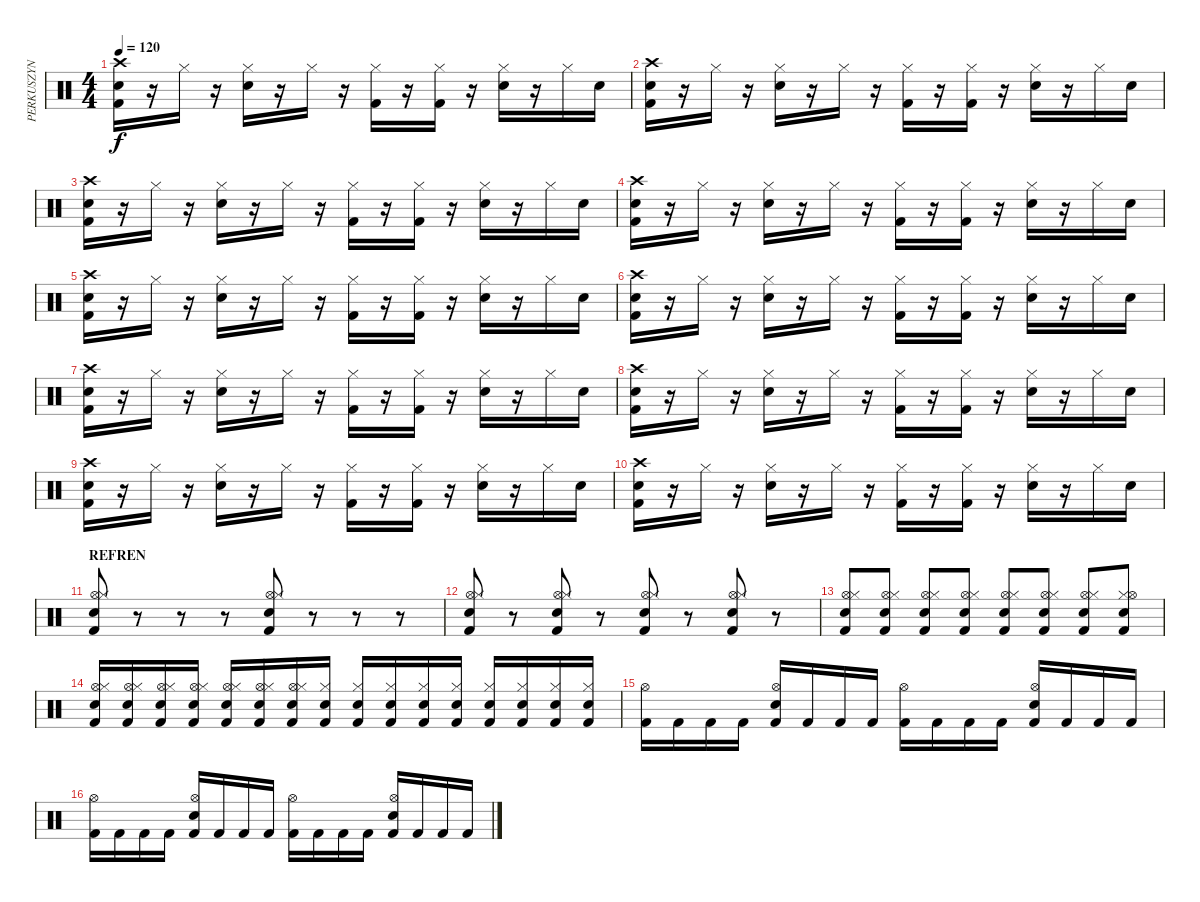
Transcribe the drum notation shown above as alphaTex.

\track ("PERKUSZYN" "PERKUSZYN") {instrument percussion}
\staff {score}
\articulation defaults
\ts (4 4)
\tempo 120
\clef neutral
\ks c
("Crash high (hit)" "Snare (hit) 2" "Kick (hit) 2").16{dy f} r.16 "Hi-Hat (closed)".16 r.16 ("Hi-Hat (closed)" "Snare (hit) 2").16 r.16 "Hi-Hat (closed)".16 r.16 ("Hi-Hat (closed)" "Kick (hit) 2").16 r.16 ("Hi-Hat (closed)" "Kick (hit) 2").16 r.16 ("Hi-Hat (closed)" "Snare (hit) 2").16 r.16 "Hi-Hat (closed)".16 "Snare (hit) 2".16 |
("Crash high (hit)" "Snare (hit) 2" "Kick (hit) 2").16 r.16 "Hi-Hat (closed)".16 r.16 ("Hi-Hat (closed)" "Snare (hit) 2").16 r.16 "Hi-Hat (closed)".16 r.16 ("Hi-Hat (closed)" "Kick (hit) 2").16 r.16 ("Hi-Hat (closed)" "Kick (hit) 2").16 r.16 ("Hi-Hat (closed)" "Snare (hit) 2").16 r.16 "Hi-Hat (closed)".16 "Snare (hit) 2".16 |
("Crash high (hit)" "Snare (hit) 2" "Kick (hit) 2").16 r.16 "Hi-Hat (closed)".16 r.16 ("Hi-Hat (closed)" "Snare (hit) 2").16 r.16 "Hi-Hat (closed)".16 r.16 ("Hi-Hat (closed)" "Kick (hit) 2").16 r.16 ("Hi-Hat (closed)" "Kick (hit) 2").16 r.16 ("Hi-Hat (closed)" "Snare (hit) 2").16 r.16 "Hi-Hat (closed)".16 "Snare (hit) 2".16 |
("Crash high (hit)" "Snare (hit) 2" "Kick (hit) 2").16 r.16 "Hi-Hat (closed)".16 r.16 ("Hi-Hat (closed)" "Snare (hit) 2").16 r.16 "Hi-Hat (closed)".16 r.16 ("Hi-Hat (closed)" "Kick (hit) 2").16 r.16 ("Hi-Hat (closed)" "Kick (hit) 2").16 r.16 ("Hi-Hat (closed)" "Snare (hit) 2").16 r.16 "Hi-Hat (closed)".16 "Snare (hit) 2".16 |
("Crash high (hit)" "Snare (hit) 2" "Kick (hit) 2").16 r.16 "Hi-Hat (closed)".16 r.16 ("Hi-Hat (closed)" "Snare (hit) 2").16 r.16 "Hi-Hat (closed)".16 r.16 ("Hi-Hat (closed)" "Kick (hit) 2").16 r.16 ("Hi-Hat (closed)" "Kick (hit) 2").16 r.16 ("Hi-Hat (closed)" "Snare (hit) 2").16 r.16 "Hi-Hat (closed)".16 "Snare (hit) 2".16 |
("Crash high (hit)" "Snare (hit) 2" "Kick (hit) 2").16 r.16 "Hi-Hat (closed)".16 r.16 ("Hi-Hat (closed)" "Snare (hit) 2").16 r.16 "Hi-Hat (closed)".16 r.16 ("Hi-Hat (closed)" "Kick (hit) 2").16 r.16 ("Hi-Hat (closed)" "Kick (hit) 2").16 r.16 ("Hi-Hat (closed)" "Snare (hit) 2").16 r.16 "Hi-Hat (closed)".16 "Snare (hit) 2".16 |
("Crash high (hit)" "Snare (hit) 2" "Kick (hit) 2").16 r.16 "Hi-Hat (closed)".16 r.16 ("Hi-Hat (closed)" "Snare (hit) 2").16 r.16 "Hi-Hat (closed)".16 r.16 ("Hi-Hat (closed)" "Kick (hit) 2").16 r.16 ("Hi-Hat (closed)" "Kick (hit) 2").16 r.16 ("Hi-Hat (closed)" "Snare (hit) 2").16 r.16 "Hi-Hat (closed)".16 "Snare (hit) 2".16 |
("Crash high (hit)" "Snare (hit) 2" "Kick (hit) 2").16 r.16 "Hi-Hat (closed)".16 r.16 ("Hi-Hat (closed)" "Snare (hit) 2").16 r.16 "Hi-Hat (closed)".16 r.16 ("Hi-Hat (closed)" "Kick (hit) 2").16 r.16 ("Hi-Hat (closed)" "Kick (hit) 2").16 r.16 ("Hi-Hat (closed)" "Snare (hit) 2").16 r.16 "Hi-Hat (closed)".16 "Snare (hit) 2".16 |
("Crash high (hit)" "Snare (hit) 2" "Kick (hit) 2").16 r.16 "Hi-Hat (closed)".16 r.16 ("Hi-Hat (closed)" "Snare (hit) 2").16 r.16 "Hi-Hat (closed)".16 r.16 ("Hi-Hat (closed)" "Kick (hit) 2").16 r.16 ("Hi-Hat (closed)" "Kick (hit) 2").16 r.16 ("Hi-Hat (closed)" "Snare (hit) 2").16 r.16 "Hi-Hat (closed)".16 "Snare (hit) 2".16 |
("Crash high (hit)" "Snare (hit) 2" "Kick (hit) 2").16 r.16 "Hi-Hat (closed)".16 r.16 ("Hi-Hat (closed)" "Snare (hit) 2").16 r.16 "Hi-Hat (closed)".16 r.16 ("Hi-Hat (closed)" "Kick (hit) 2").16 r.16 ("Hi-Hat (closed)" "Kick (hit) 2").16 r.16 ("Hi-Hat (closed)" "Snare (hit) 2").16 r.16 "Hi-Hat (closed)".16 "Snare (hit) 2".16 |
\section ("" "REFREN")
("Hi-Hat (open)" "Hi-Hat (closed)" "Electric Snare (hit)" "Kick (hit) 2").8 r.8 r.8 r.8 ("Hi-Hat (open)" "Hi-Hat (closed)" "Electric Snare (hit)" "Kick (hit) 2").8 r.8 r.8 r.8 |
("Hi-Hat (open)" "Hi-Hat (closed)" "Electric Snare (hit)" "Kick (hit) 2").8 r.8 ("Hi-Hat (open)" "Hi-Hat (closed)" "Electric Snare (hit)" "Kick (hit) 2").8 r.8 ("Hi-Hat (open)" "Hi-Hat (closed)" "Electric Snare (hit)" "Kick (hit) 2").8 r.8 ("Hi-Hat (open)" "Hi-Hat (closed)" "Electric Snare (hit)" "Kick (hit) 2").8 r.8 |
("Hi-Hat (open)" "Hi-Hat (closed)" "Electric Snare (hit)" "Kick (hit) 2").8 ("Hi-Hat (open)" "Hi-Hat (closed)" "Electric Snare (hit)" "Kick (hit) 2").8 ("Hi-Hat (open)" "Hi-Hat (closed)" "Electric Snare (hit)" "Kick (hit) 2").8 ("Hi-Hat (open)" "Hi-Hat (closed)" "Electric Snare (hit)" "Kick (hit) 2").8 ("Hi-Hat (open)" "Hi-Hat (closed)" "Electric Snare (hit)" "Kick (hit) 2").8 ("Hi-Hat (open)" "Electric Snare (hit)" "Hi-Hat (closed)" "Kick (hit) 2").8 ("Hi-Hat (open)" "Hi-Hat (closed)" "Electric Snare (hit)" "Kick (hit) 2").8 ("Hi-Hat (closed)" "Hi-Hat (open)" "Electric Snare (hit)" "Kick (hit) 2").8 |
("Hi-Hat (open)" "Hi-Hat (closed)" "Electric Snare (hit)" "Kick (hit) 2").16 ("Hi-Hat (open)" "Hi-Hat (closed)" "Electric Snare (hit)" "Kick (hit) 2").16 ("Hi-Hat (open)" "Hi-Hat (closed)" "Electric Snare (hit)" "Kick (hit) 2").16 ("Hi-Hat (open)" "Hi-Hat (closed)" "Electric Snare (hit)" "Kick (hit) 2").16 ("Hi-Hat (open)" "Hi-Hat (closed)" "Electric Snare (hit)" "Kick (hit) 2").16 ("Hi-Hat (open)" "Electric Snare (hit)" "Hi-Hat (closed)" "Kick (hit) 2").16 ("Hi-Hat (open)" "Hi-Hat (closed)" "Electric Snare (hit)" "Kick (hit) 2").16 ("Hi-Hat (closed)" "Electric Snare (hit)" "Kick (hit) 2").16 ("Hi-Hat (closed)" "Electric Snare (hit)" "Kick (hit) 2").16 ("Hi-Hat (closed)" "Electric Snare (hit)" "Kick (hit) 2").16 ("Hi-Hat (closed)" "Electric Snare (hit)" "Kick (hit) 2").16 ("Hi-Hat (closed)" "Electric Snare (hit)" "Kick (hit) 2").16 ("Hi-Hat (closed)" "Electric Snare (hit)" "Kick (hit) 2").16 ("Hi-Hat (closed)" "Electric Snare (hit)" "Kick (hit) 2").16 ("Hi-Hat (closed)" "Electric Snare (hit)" "Kick (hit) 2").16 ("Hi-Hat (closed)" "Electric Snare (hit)" "Kick (hit) 2").16 |
("Hi-Hat (open)" "Kick (hit) 2").16 "Kick (hit) 2".16 "Kick (hit) 2".16 "Kick (hit) 2".16 ("Hi-Hat (open)" "Electric Snare (hit)" "Kick (hit) 2").16 "Kick (hit) 2".16 "Kick (hit) 2".16 "Kick (hit) 2".16 ("Hi-Hat (open)" "Kick (hit) 2").16 "Kick (hit) 2".16 "Kick (hit) 2".16 "Kick (hit) 2".16 ("Hi-Hat (open)" "Electric Snare (hit)" "Kick (hit) 2").16 "Kick (hit) 2".16 "Kick (hit) 2".16 "Kick (hit) 2".16 |
("Hi-Hat (open)" "Kick (hit) 2").16 "Kick (hit) 2".16 "Kick (hit) 2".16 "Kick (hit) 2".16 ("Hi-Hat (open)" "Electric Snare (hit)" "Kick (hit) 2").16 "Kick (hit) 2".16 "Kick (hit) 2".16 "Kick (hit) 2".16 ("Hi-Hat (open)" "Kick (hit) 2").16 "Kick (hit) 2".16 "Kick (hit) 2".16 "Kick (hit) 2".16 ("Hi-Hat (open)" "Electric Snare (hit)" "Kick (hit) 2").16 "Kick (hit) 2".16 "Kick (hit) 2".16 "Kick (hit) 2".16
